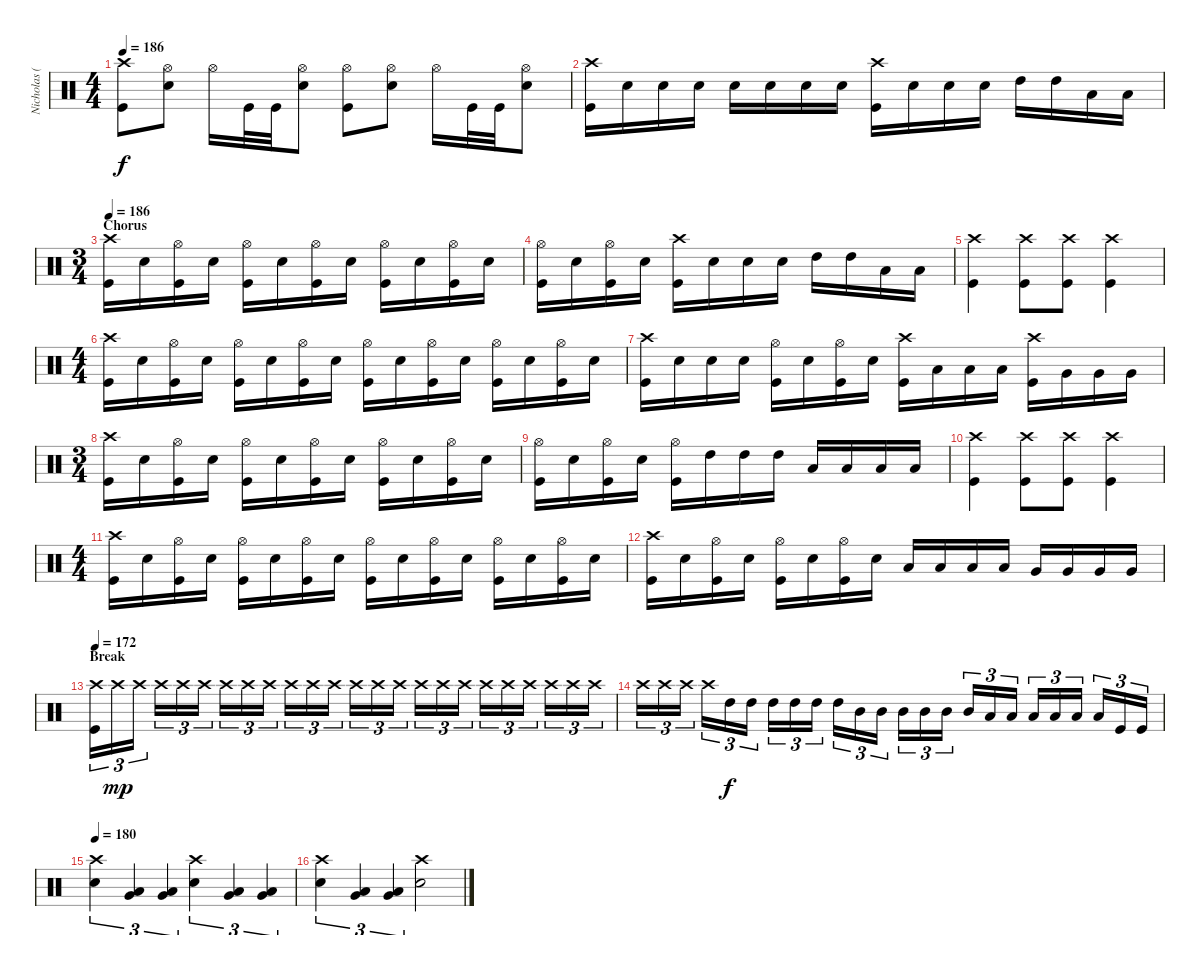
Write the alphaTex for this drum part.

\track ("Nicholas (Drums)" "Nicholas (") {instrument percussion}
\staff {score}
\articulation defaults
\ts (4 4)
\tempo 186
\clef neutral
\ks c
("Crash high (hit)" "Kick (hit)").8{dy f} ("Hi-Hat (open)" "Electric Snare (hit)").8 "Hi-Hat (open)".16 "Kick (hit)".32 "Kick (hit)".32 ("Hi-Hat (open)" "Electric Snare (hit)").8 ("Hi-Hat (open)" "Kick (hit)").8 ("Hi-Hat (open)" "Electric Snare (hit)").8 "Hi-Hat (open)".16 "Kick (hit)".32 "Kick (hit)".32 ("Hi-Hat (open)" "Electric Snare (hit)").8 |
("Crash high (hit)" "Kick (hit)").16 "Electric Snare (hit)".16 "Electric Snare (hit)".16 "Electric Snare (hit)".16 "Electric Snare (hit)".16 "Electric Snare (hit)".16 "Electric Snare (hit)".16 "Electric Snare (hit)".16 ("Crash high (hit)" "Kick (hit)").16 "Electric Snare (hit)".16 "Electric Snare (hit)".16 "Electric Snare (hit)".16 "High Tom (hit)".16 "High Tom (hit)".16 "Low Tom (hit)".16 "Low Tom (hit)".16 |
\ts (3 4)
\section ("" "Chorus")
\tempo 186
("Crash high (hit)" "Kick (hit)").16 "Electric Snare (hit)".16 ("Hi-Hat (open)" "Kick (hit)").16 "Electric Snare (hit)".16 ("Hi-Hat (open)" "Kick (hit)").16 "Electric Snare (hit)".16 ("Hi-Hat (open)" "Kick (hit)").16 "Electric Snare (hit)".16 ("Hi-Hat (open)" "Kick (hit)").16 "Electric Snare (hit)".16 ("Hi-Hat (open)" "Kick (hit)").16 "Electric Snare (hit)".16 |
("Hi-Hat (open)" "Kick (hit)").16 "Electric Snare (hit)".16 ("Hi-Hat (open)" "Kick (hit)").16 "Electric Snare (hit)".16 ("Crash high (hit)" "Kick (hit)").16 "Electric Snare (hit)".16 "Electric Snare (hit)".16 "Electric Snare (hit)".16 "High Tom (hit)".16 "High Tom (hit)".16 "Low Tom (hit)".16 "Low Tom (hit)".16 |
("Crash high (hit)" "Kick (hit)").4 ("Crash high (hit)" "Kick (hit)").8 ("Crash high (hit)" "Kick (hit)").8 ("Crash high (hit)" "Kick (hit)").4 |
\ts (4 4)
("Crash high (hit)" "Kick (hit)").16 "Electric Snare (hit)".16 ("Hi-Hat (open)" "Kick (hit)").16 "Electric Snare (hit)".16 ("Hi-Hat (open)" "Kick (hit)").16 "Electric Snare (hit)".16 ("Hi-Hat (open)" "Kick (hit)").16 "Electric Snare (hit)".16 ("Hi-Hat (open)" "Kick (hit)").16 "Electric Snare (hit)".16 ("Hi-Hat (open)" "Kick (hit)").16 "Electric Snare (hit)".16 ("Hi-Hat (open)" "Kick (hit)").16 "Electric Snare (hit)".16 ("Hi-Hat (open)" "Kick (hit)").16 "Electric Snare (hit)".16 |
("Crash high (hit)" "Kick (hit)").16 "Electric Snare (hit)".16 "Electric Snare (hit)".16 "Electric Snare (hit)".16 ("Hi-Hat (open)" "Kick (hit)").16 "Electric Snare (hit)".16 ("Hi-Hat (open)" "Kick (hit)").16 "Electric Snare (hit)".16 ("Crash high (hit)" "Kick (hit)").16 "Low Tom (hit)".16 "Low Tom (hit)".16 "Low Tom (hit)".16 ("Crash high (hit)" "Kick (hit)").16 "Very Low Tom (hit)".16 "Very Low Tom (hit)".16 "Very Low Tom (hit)".16 |
\ts (3 4)
("Crash high (hit)" "Kick (hit)").16 "Electric Snare (hit)".16 ("Hi-Hat (open)" "Kick (hit)").16 "Electric Snare (hit)".16 ("Hi-Hat (open)" "Kick (hit)").16 "Electric Snare (hit)".16 ("Hi-Hat (open)" "Kick (hit)").16 "Electric Snare (hit)".16 ("Hi-Hat (open)" "Kick (hit)").16 "Electric Snare (hit)".16 ("Hi-Hat (open)" "Kick (hit)").16 "Electric Snare (hit)".16 |
("Hi-Hat (open)" "Kick (hit)").16 "Electric Snare (hit)".16 ("Hi-Hat (open)" "Kick (hit)").16 "Electric Snare (hit)".16 ("Hi-Hat (open)" "Kick (hit)").16 "High Tom (hit)".16 "High Tom (hit)".16 "High Tom (hit)".16 "Low Tom (hit)".16 "Low Tom (hit)".16 "Low Tom (hit)".16 "Low Tom (hit)".16 |
("Crash high (hit)" "Kick (hit)").4 ("Crash high (hit)" "Kick (hit)").8 ("Crash high (hit)" "Kick (hit)").8 ("Crash high (hit)" "Kick (hit)").4 |
\ts (4 4)
("Crash high (hit)" "Kick (hit)").16 "Electric Snare (hit)".16 ("Hi-Hat (open)" "Kick (hit)").16 "Electric Snare (hit)".16 ("Hi-Hat (open)" "Kick (hit)").16 "Electric Snare (hit)".16 ("Hi-Hat (open)" "Kick (hit)").16 "Electric Snare (hit)".16 ("Hi-Hat (open)" "Kick (hit)").16 "Electric Snare (hit)".16 ("Hi-Hat (open)" "Kick (hit)").16 "Electric Snare (hit)".16 ("Hi-Hat (open)" "Kick (hit)").16 "Electric Snare (hit)".16 ("Hi-Hat (open)" "Kick (hit)").16 "Electric Snare (hit)".16 |
("Crash high (hit)" "Kick (hit)").16 "Electric Snare (hit)".16 ("Hi-Hat (open)" "Kick (hit)").16 "Electric Snare (hit)".16 ("Hi-Hat (open)" "Kick (hit)").16 "Electric Snare (hit)".16 ("Hi-Hat (open)" "Kick (hit)").16 "Electric Snare (hit)".16 "Low Tom (hit)".16 "Low Tom (hit)".16 "Low Tom (hit)".16 "Low Tom (hit)".16 "Very Low Tom (hit)".16 "Very Low Tom (hit)".16 "Very Low Tom (hit)".16 "Very Low Tom (hit)".16 |
\section ("" "Break")
\tempo 172
("Crash high (hit)" "Kick (hit)").16{tu (3 2)} "Crash high (hit)".16{tu (3 2) dy mp} "Crash high (hit)".16{tu (3 2)} "Crash high (hit)".16{tu (3 2)} "Crash high (hit)".16{tu (3 2)} "Crash high (hit)".16{tu (3 2)} "Crash high (hit)".16{tu (3 2)} "Crash high (hit)".16{tu (3 2)} "Crash high (hit)".16{tu (3 2)} "Crash high (hit)".16{tu (3 2)} "Crash high (hit)".16{tu (3 2)} "Crash high (hit)".16{tu (3 2)} "Crash high (hit)".16{tu (3 2)} "Crash high (hit)".16{tu (3 2)} "Crash high (hit)".16{tu (3 2)} "Crash high (hit)".16{tu (3 2)} "Crash high (hit)".16{tu (3 2)} "Crash high (hit)".16{tu (3 2)} "Crash high (hit)".16{tu (3 2)} "Crash high (hit)".16{tu (3 2)} "Crash high (hit)".16{tu (3 2)} "Crash high (hit)".16{tu (3 2)} "Crash high (hit)".16{tu (3 2)} "Crash high (hit)".16{tu (3 2)} |
"Crash high (hit)".16{tu (3 2)} "Crash high (hit)".16{tu (3 2)} "Crash high (hit)".16{tu (3 2)} "Crash high (hit)".16{tu (3 2)} "High Tom (hit)".16{tu (3 2) dy f} "High Tom (hit)".16{tu (3 2)} "High Tom (hit)".16{tu (3 2)} "High Tom (hit)".16{tu (3 2)} "High Tom (hit)".16{tu (3 2)} "High Tom (hit)".16{tu (3 2)} "Mid Tom (hit)".16{tu (3 2)} "Mid Tom (hit)".16{tu (3 2)} "Mid Tom (hit)".16{tu (3 2)} "Mid Tom (hit)".16{tu (3 2)} "Mid Tom (hit)".16{tu (3 2)} "Mid Tom (hit)".16{tu (3 2)} "Low Tom (hit)".16{tu (3 2)} "Low Tom (hit)".16{tu (3 2)} "Low Tom (hit)".16{tu (3 2)} "Low Tom (hit)".16{tu (3 2)} "Low Tom (hit)".16{tu (3 2)} "Low Tom (hit)".16{tu (3 2)} "Kick (hit)".16{tu (3 2)} "Kick (hit)".16{tu (3 2)} |
\tempo 180
("Crash high (hit)" "Electric Snare (hit)").4{tu (3 2)} ("Low Tom (hit)" "Very Low Tom (hit)").4{tu (3 2) bd 120} ("Low Tom (hit)" "Very Low Tom (hit)").4{tu (3 2) bd 120} ("Crash high (hit)" "Electric Snare (hit)").4{tu (3 2)} ("Low Tom (hit)" "Very Low Tom (hit)").4{tu (3 2) bd 120} ("Low Tom (hit)" "Very Low Tom (hit)").4{tu (3 2) bd 120} |
("Crash high (hit)" "Electric Snare (hit)").4{tu (3 2)} ("Low Tom (hit)" "Very Low Tom (hit)").4{tu (3 2) bd 120} ("Low Tom (hit)" "Very Low Tom (hit)").4{tu (3 2) bd 120} ("Crash high (hit)" "Electric Snare (hit)").2
